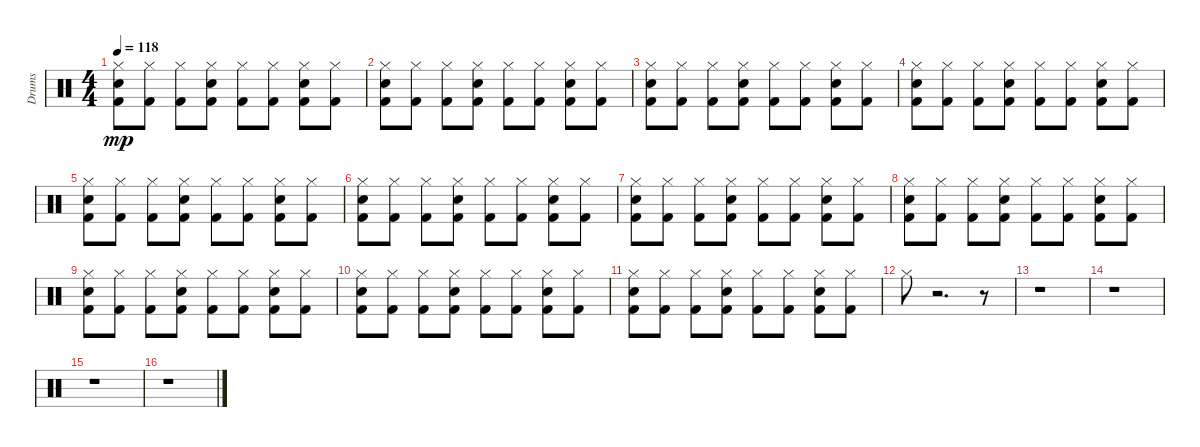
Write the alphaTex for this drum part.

\track ("Drums" "Drums") {instrument percussion}
\staff {score}
\articulation defaults
\ts (4 4)
\tempo 118
\clef neutral
\ks c
("Hi-Hat (closed)" "Kick (hit) 2" "Snare (hit) 2").8{dy mp} ("Hi-Hat (closed)" "Kick (hit) 2").8 ("Hi-Hat (closed)" "Kick (hit) 2").8 ("Hi-Hat (closed)" "Kick (hit) 2" "Snare (hit) 2").8 ("Hi-Hat (closed)" "Kick (hit) 2").8 ("Hi-Hat (closed)" "Kick (hit) 2").8 ("Hi-Hat (closed)" "Snare (hit) 2" "Kick (hit) 2").8 ("Hi-Hat (closed)" "Kick (hit) 2").8 |
("Hi-Hat (closed)" "Snare (hit) 2" "Kick (hit) 2").8 ("Hi-Hat (closed)" "Kick (hit) 2").8 ("Hi-Hat (closed)" "Kick (hit) 2").8 ("Hi-Hat (closed)" "Snare (hit) 2" "Kick (hit) 2").8 ("Hi-Hat (closed)" "Kick (hit) 2").8 ("Hi-Hat (closed)" "Kick (hit) 2").8 ("Hi-Hat (closed)" "Snare (hit) 2" "Kick (hit) 2").8 ("Hi-Hat (closed)" "Kick (hit) 2").8 |
("Hi-Hat (closed)" "Kick (hit) 2" "Snare (hit) 2").8 ("Hi-Hat (closed)" "Kick (hit) 2").8 ("Hi-Hat (closed)" "Kick (hit) 2").8 ("Hi-Hat (closed)" "Snare (hit) 2" "Kick (hit) 2").8 ("Hi-Hat (closed)" "Kick (hit) 2").8 ("Hi-Hat (closed)" "Kick (hit) 2").8 ("Hi-Hat (closed)" "Kick (hit) 2" "Snare (hit) 2").8 ("Hi-Hat (closed)" "Kick (hit) 2").8 |
("Hi-Hat (closed)" "Kick (hit) 2" "Snare (hit) 2").8 ("Hi-Hat (closed)" "Kick (hit) 2").8 ("Hi-Hat (closed)" "Kick (hit) 2").8 ("Hi-Hat (closed)" "Snare (hit) 2" "Kick (hit) 2").8 ("Hi-Hat (closed)" "Kick (hit) 2").8 ("Hi-Hat (closed)" "Kick (hit) 2").8 ("Hi-Hat (closed)" "Kick (hit) 2" "Snare (hit) 2").8 ("Hi-Hat (closed)" "Kick (hit) 2").8 |
("Hi-Hat (closed)" "Snare (hit) 2" "Kick (hit) 2").8 ("Hi-Hat (closed)" "Kick (hit) 2").8 ("Hi-Hat (closed)" "Kick (hit) 2").8 ("Hi-Hat (closed)" "Kick (hit) 2" "Snare (hit) 2").8 ("Hi-Hat (closed)" "Kick (hit) 2").8 ("Hi-Hat (closed)" "Kick (hit) 2").8 ("Hi-Hat (closed)" "Snare (hit) 2" "Kick (hit) 2").8 ("Hi-Hat (closed)" "Kick (hit) 2").8 |
("Hi-Hat (closed)" "Kick (hit) 2" "Snare (hit) 2").8 ("Hi-Hat (closed)" "Kick (hit) 2").8 ("Hi-Hat (closed)" "Kick (hit) 2").8 ("Hi-Hat (closed)" "Snare (hit) 2" "Kick (hit) 2").8 ("Hi-Hat (closed)" "Kick (hit) 2").8 ("Hi-Hat (closed)" "Kick (hit) 2").8 ("Hi-Hat (closed)" "Snare (hit) 2" "Kick (hit) 2").8 ("Hi-Hat (closed)" "Kick (hit) 2").8 |
("Hi-Hat (closed)" "Snare (hit) 2" "Kick (hit) 2").8 ("Hi-Hat (closed)" "Kick (hit) 2").8 ("Hi-Hat (closed)" "Kick (hit) 2").8 ("Hi-Hat (closed)" "Snare (hit) 2" "Kick (hit) 2").8 ("Hi-Hat (closed)" "Kick (hit) 2").8 ("Hi-Hat (closed)" "Kick (hit) 2").8 ("Hi-Hat (closed)" "Snare (hit) 2" "Kick (hit) 2").8 ("Hi-Hat (closed)" "Kick (hit) 2").8 |
("Hi-Hat (closed)" "Kick (hit) 2" "Snare (hit) 2").8 ("Hi-Hat (closed)" "Kick (hit) 2").8 ("Hi-Hat (closed)" "Kick (hit) 2").8 ("Hi-Hat (closed)" "Snare (hit) 2" "Kick (hit) 2").8 ("Hi-Hat (closed)" "Kick (hit) 2").8 ("Hi-Hat (closed)" "Kick (hit) 2").8 ("Hi-Hat (closed)" "Kick (hit) 2" "Snare (hit) 2").8 ("Hi-Hat (closed)" "Kick (hit) 2").8 |
("Hi-Hat (closed)" "Snare (hit) 2" "Kick (hit) 2").8 ("Hi-Hat (closed)" "Kick (hit) 2").8 ("Hi-Hat (closed)" "Kick (hit) 2").8 ("Hi-Hat (closed)" "Snare (hit) 2" "Kick (hit) 2").8 ("Hi-Hat (closed)" "Kick (hit) 2").8 ("Hi-Hat (closed)" "Kick (hit) 2").8 ("Hi-Hat (closed)" "Kick (hit) 2" "Snare (hit) 2").8 ("Hi-Hat (closed)" "Kick (hit) 2").8 |
("Hi-Hat (closed)" "Snare (hit) 2" "Kick (hit) 2").8 ("Hi-Hat (closed)" "Kick (hit) 2").8 ("Hi-Hat (closed)" "Kick (hit) 2").8 ("Hi-Hat (closed)" "Kick (hit) 2" "Snare (hit) 2").8 ("Hi-Hat (closed)" "Kick (hit) 2").8 ("Hi-Hat (closed)" "Kick (hit) 2").8 ("Hi-Hat (closed)" "Kick (hit) 2" "Snare (hit) 2").8 ("Hi-Hat (closed)" "Kick (hit) 2").8 |
("Hi-Hat (closed)" "Snare (hit) 2" "Kick (hit) 2").8 ("Hi-Hat (closed)" "Kick (hit) 2").8 ("Hi-Hat (closed)" "Kick (hit) 2").8 ("Hi-Hat (closed)" "Snare (hit) 2" "Kick (hit) 2").8 ("Hi-Hat (closed)" "Kick (hit) 2").8 ("Hi-Hat (closed)" "Kick (hit) 2").8 ("Hi-Hat (closed)" "Snare (hit) 2" "Kick (hit) 2").8 ("Hi-Hat (closed)" "Kick (hit) 2").8 |
"Hi-Hat (closed)".8 r.2{d} r.8 |
r.1 |
r.1 |
r.1 |
r.1
